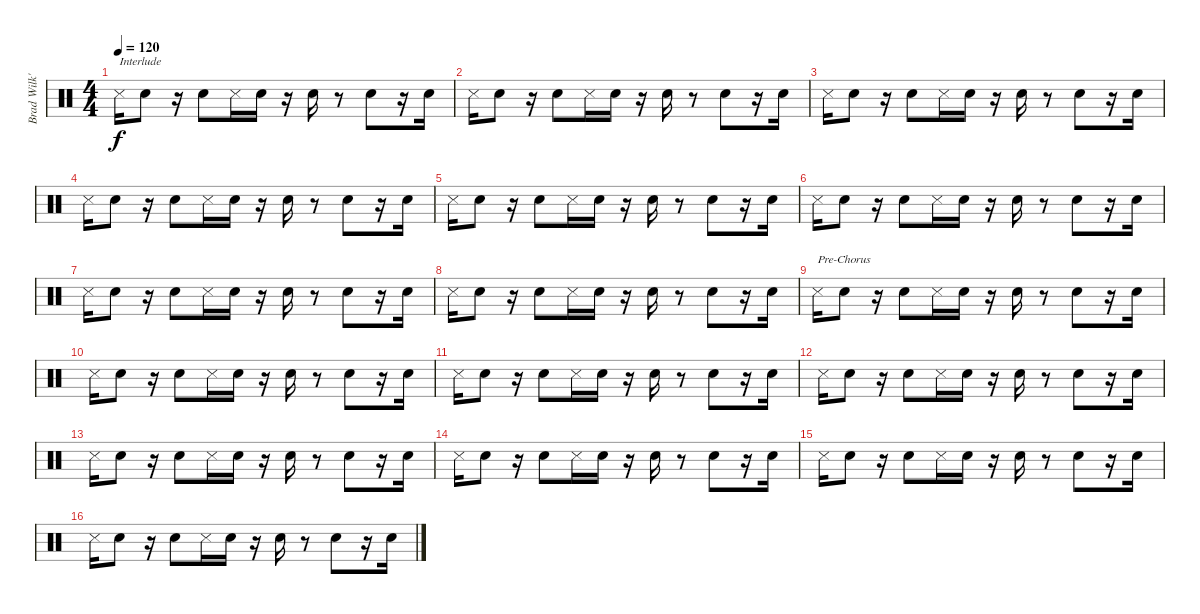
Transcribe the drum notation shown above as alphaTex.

\track ("Brad Wilk's Snare Drum" "Brad Wilk'") {instrument percussion}
\staff {score}
\articulation defaults
\ts (4 4)
\tempo 120
\clef neutral
\ks c "Snare (side stick) 3".16{txt "Interlude" dy f} "Electric Snare (hit)".8
r.16 "Electric Snare (hit)".8 "Snare (side stick) 3".16 "Electric Snare (hit)".16 r.16 "Electric Snare (hit)".16 r.8 "Electric Snare (hit)".8 r.16 "Electric Snare (hit)".16 |
"Snare (side stick) 3".16 "Electric Snare (hit)".8 r.16 "Electric Snare (hit)".8 "Snare (side stick) 3".16 "Electric Snare (hit)".16 r.16 "Electric Snare (hit)".16 r.8 "Electric Snare (hit)".8 r.16 "Electric Snare (hit)".16 |
"Snare (side stick) 3".16 "Electric Snare (hit)".8 r.16 "Electric Snare (hit)".8 "Snare (side stick) 3".16 "Electric Snare (hit)".16 r.16 "Electric Snare (hit)".16 r.8 "Electric Snare (hit)".8 r.16 "Electric Snare (hit)".16 |
"Snare (side stick) 3".16 "Electric Snare (hit)".8 r.16 "Electric Snare (hit)".8 "Snare (side stick) 3".16 "Electric Snare (hit)".16 r.16 "Electric Snare (hit)".16 r.8 "Electric Snare (hit)".8 r.16 "Electric Snare (hit)".16 |
"Snare (side stick) 3".16 "Electric Snare (hit)".8 r.16 "Electric Snare (hit)".8 "Snare (side stick) 3".16 "Electric Snare (hit)".16 r.16 "Electric Snare (hit)".16 r.8 "Electric Snare (hit)".8 r.16 "Electric Snare (hit)".16 |
"Snare (side stick) 3".16 "Electric Snare (hit)".8 r.16 "Electric Snare (hit)".8 "Snare (side stick) 3".16 "Electric Snare (hit)".16 r.16 "Electric Snare (hit)".16 r.8 "Electric Snare (hit)".8 r.16 "Electric Snare (hit)".16 |
"Snare (side stick) 3".16 "Electric Snare (hit)".8 r.16 "Electric Snare (hit)".8 "Snare (side stick) 3".16 "Electric Snare (hit)".16 r.16 "Electric Snare (hit)".16 r.8 "Electric Snare (hit)".8 r.16 "Electric Snare (hit)".16 |
"Snare (side stick) 3".16 "Electric Snare (hit)".8 r.16 "Electric Snare (hit)".8 "Snare (side stick) 3".16 "Electric Snare (hit)".16 r.16 "Electric Snare (hit)".16 r.8 "Electric Snare (hit)".8 r.16 "Electric Snare (hit)".16 |
"Snare (side stick) 3".16{txt "Pre-Chorus"} "Electric Snare (hit)".8 r.16 "Electric Snare (hit)".8 "Snare (side stick) 3".16 "Electric Snare (hit)".16 r.16 "Electric Snare (hit)".16 r.8 "Electric Snare (hit)".8 r.16 "Electric Snare (hit)".16 |
"Snare (side stick) 3".16 "Electric Snare (hit)".8 r.16 "Electric Snare (hit)".8 "Snare (side stick) 3".16 "Electric Snare (hit)".16 r.16 "Electric Snare (hit)".16 r.8 "Electric Snare (hit)".8 r.16 "Electric Snare (hit)".16 |
"Snare (side stick) 3".16 "Electric Snare (hit)".8 r.16 "Electric Snare (hit)".8 "Snare (side stick) 3".16 "Electric Snare (hit)".16 r.16 "Electric Snare (hit)".16 r.8 "Electric Snare (hit)".8 r.16 "Electric Snare (hit)".16 |
"Snare (side stick) 3".16 "Electric Snare (hit)".8 r.16 "Electric Snare (hit)".8 "Snare (side stick) 3".16 "Electric Snare (hit)".16 r.16 "Electric Snare (hit)".16 r.8 "Electric Snare (hit)".8 r.16 "Electric Snare (hit)".16 |
"Snare (side stick) 3".16 "Electric Snare (hit)".8 r.16 "Electric Snare (hit)".8 "Snare (side stick) 3".16 "Electric Snare (hit)".16 r.16 "Electric Snare (hit)".16 r.8 "Electric Snare (hit)".8 r.16 "Electric Snare (hit)".16 |
"Snare (side stick) 3".16 "Electric Snare (hit)".8 r.16 "Electric Snare (hit)".8 "Snare (side stick) 3".16 "Electric Snare (hit)".16 r.16 "Electric Snare (hit)".16 r.8 "Electric Snare (hit)".8 r.16 "Electric Snare (hit)".16 |
"Snare (side stick) 3".16 "Electric Snare (hit)".8 r.16 "Electric Snare (hit)".8 "Snare (side stick) 3".16 "Electric Snare (hit)".16 r.16 "Electric Snare (hit)".16 r.8 "Electric Snare (hit)".8 r.16 "Electric Snare (hit)".16 |
"Snare (side stick) 3".16 "Electric Snare (hit)".8 r.16 "Electric Snare (hit)".8 "Snare (side stick) 3".16 "Electric Snare (hit)".16 r.16 "Electric Snare (hit)".16 r.8 "Electric Snare (hit)".8 r.16 "Electric Snare (hit)".16
